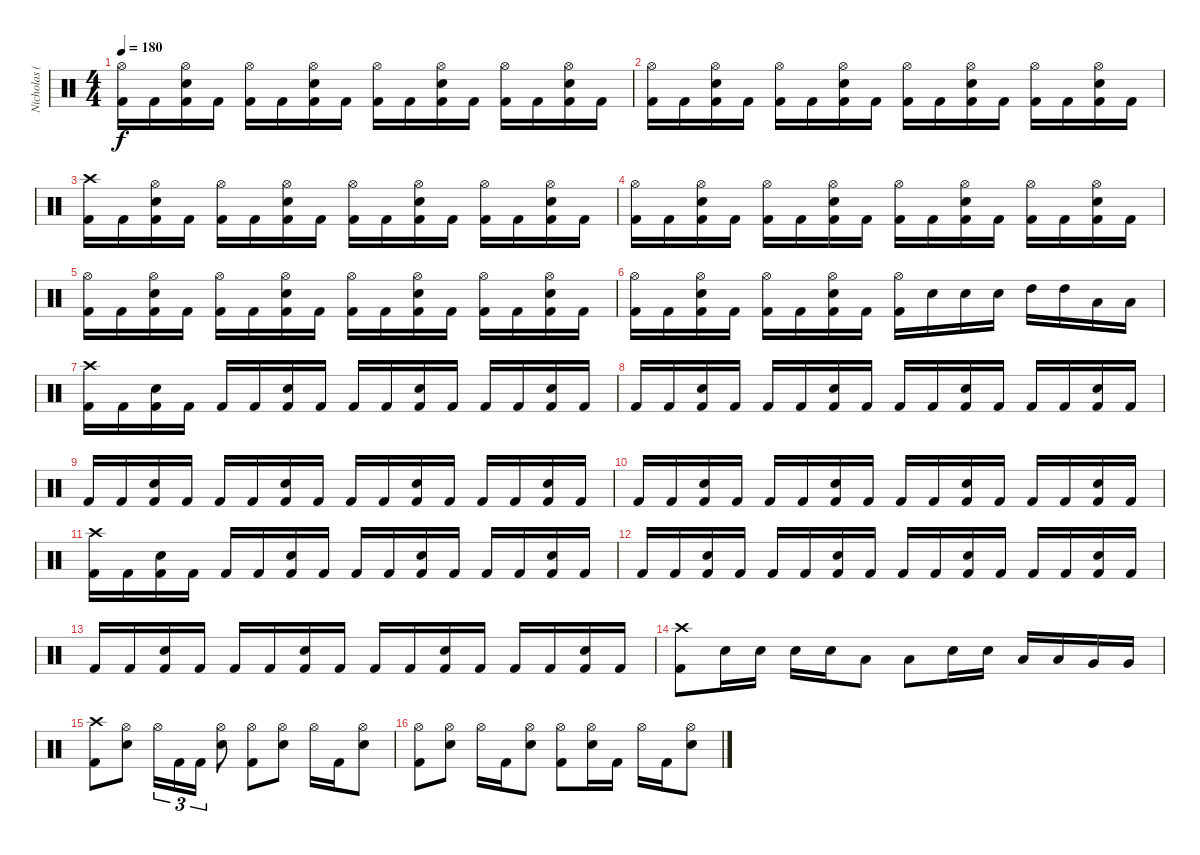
\track ("Nicholas (Drums)" "Nicholas (") {instrument percussion}
\staff {score}
\articulation defaults
\ts (4 4)
\tempo 180
\clef neutral
\ks c
("Hi-Hat (open)" "Kick (hit) 2").16{dy f} "Kick (hit) 2".16 ("Hi-Hat (open)" "Electric Snare (hit)" "Kick (hit) 2").16 "Kick (hit) 2".16 ("Hi-Hat (open)" "Kick (hit) 2").16 "Kick (hit) 2".16 ("Hi-Hat (open)" "Electric Snare (hit)" "Kick (hit) 2").16 "Kick (hit) 2".16 ("Hi-Hat (open)" "Kick (hit) 2").16 "Kick (hit) 2".16 ("Hi-Hat (open)" "Electric Snare (hit)" "Kick (hit) 2").16 "Kick (hit) 2".16 ("Hi-Hat (open)" "Kick (hit) 2").16 "Kick (hit) 2".16 ("Hi-Hat (open)" "Electric Snare (hit)" "Kick (hit) 2").16 "Kick (hit) 2".16 |
("Hi-Hat (open)" "Kick (hit) 2").16 "Kick (hit) 2".16 ("Hi-Hat (open)" "Electric Snare (hit)" "Kick (hit) 2").16 "Kick (hit) 2".16 ("Hi-Hat (open)" "Kick (hit) 2").16 "Kick (hit) 2".16 ("Hi-Hat (open)" "Electric Snare (hit)" "Kick (hit) 2").16 "Kick (hit) 2".16 ("Hi-Hat (open)" "Kick (hit) 2").16 "Kick (hit) 2".16 ("Hi-Hat (open)" "Electric Snare (hit)" "Kick (hit) 2").16 "Kick (hit) 2".16 ("Hi-Hat (open)" "Kick (hit) 2").16 "Kick (hit) 2".16 ("Hi-Hat (open)" "Electric Snare (hit)" "Kick (hit) 2").16 "Kick (hit) 2".16 |
("Crash high (hit)" "Kick (hit) 2").16 "Kick (hit) 2".16 ("Hi-Hat (open)" "Electric Snare (hit)" "Kick (hit) 2").16 "Kick (hit) 2".16 ("Hi-Hat (open)" "Kick (hit) 2").16 "Kick (hit) 2".16 ("Hi-Hat (open)" "Electric Snare (hit)" "Kick (hit) 2").16 "Kick (hit) 2".16 ("Hi-Hat (open)" "Kick (hit) 2").16 "Kick (hit) 2".16 ("Hi-Hat (open)" "Electric Snare (hit)" "Kick (hit) 2").16 "Kick (hit) 2".16 ("Hi-Hat (open)" "Kick (hit) 2").16 "Kick (hit) 2".16 ("Hi-Hat (open)" "Electric Snare (hit)" "Kick (hit) 2").16 "Kick (hit) 2".16 |
("Hi-Hat (open)" "Kick (hit) 2").16 "Kick (hit) 2".16 ("Hi-Hat (open)" "Electric Snare (hit)" "Kick (hit) 2").16 "Kick (hit) 2".16 ("Hi-Hat (open)" "Kick (hit) 2").16 "Kick (hit) 2".16 ("Hi-Hat (open)" "Electric Snare (hit)" "Kick (hit) 2").16 "Kick (hit) 2".16 ("Hi-Hat (open)" "Kick (hit) 2").16 "Kick (hit) 2".16 ("Hi-Hat (open)" "Electric Snare (hit)" "Kick (hit) 2").16 "Kick (hit) 2".16 ("Hi-Hat (open)" "Kick (hit) 2").16 "Kick (hit) 2".16 ("Hi-Hat (open)" "Electric Snare (hit)" "Kick (hit) 2").16 "Kick (hit) 2".16 |
("Hi-Hat (open)" "Kick (hit) 2").16 "Kick (hit) 2".16 ("Hi-Hat (open)" "Electric Snare (hit)" "Kick (hit) 2").16 "Kick (hit) 2".16 ("Hi-Hat (open)" "Kick (hit) 2").16 "Kick (hit) 2".16 ("Hi-Hat (open)" "Electric Snare (hit)" "Kick (hit) 2").16 "Kick (hit) 2".16 ("Hi-Hat (open)" "Kick (hit) 2").16 "Kick (hit) 2".16 ("Hi-Hat (open)" "Electric Snare (hit)" "Kick (hit) 2").16 "Kick (hit) 2".16 ("Hi-Hat (open)" "Kick (hit) 2").16 "Kick (hit) 2".16 ("Hi-Hat (open)" "Electric Snare (hit)" "Kick (hit) 2").16 "Kick (hit) 2".16 |
("Hi-Hat (open)" "Kick (hit) 2").16 "Kick (hit) 2".16 ("Hi-Hat (open)" "Electric Snare (hit)" "Kick (hit) 2").16 "Kick (hit) 2".16 ("Hi-Hat (open)" "Kick (hit) 2").16 "Kick (hit) 2".16 ("Hi-Hat (open)" "Electric Snare (hit)" "Kick (hit) 2").16 "Kick (hit) 2".16 ("Hi-Hat (open)" "Kick (hit) 2").16 "Electric Snare (hit)".16 "Electric Snare (hit)".16 "Electric Snare (hit)".16 "High Tom (hit)".16 "High Tom (hit)".16 "Low Tom (hit)".16 "Low Tom (hit)".16 |
("Crash high (hit)" "Kick (hit) 2").16 "Kick (hit) 2".16 ("Electric Snare (hit)" "Kick (hit) 2").16 "Kick (hit) 2".16 "Kick (hit) 2".16 "Kick (hit) 2".16 ("Electric Snare (hit)" "Kick (hit) 2").16 "Kick (hit) 2".16 "Kick (hit) 2".16 "Kick (hit) 2".16 ("Electric Snare (hit)" "Kick (hit) 2").16 "Kick (hit) 2".16 "Kick (hit) 2".16 "Kick (hit) 2".16 ("Electric Snare (hit)" "Kick (hit) 2").16 "Kick (hit) 2".16 |
"Kick (hit) 2".16 "Kick (hit) 2".16 ("Electric Snare (hit)" "Kick (hit) 2").16 "Kick (hit) 2".16 "Kick (hit) 2".16 "Kick (hit) 2".16 ("Electric Snare (hit)" "Kick (hit) 2").16 "Kick (hit) 2".16 "Kick (hit) 2".16 "Kick (hit) 2".16 ("Electric Snare (hit)" "Kick (hit) 2").16 "Kick (hit) 2".16 "Kick (hit) 2".16 "Kick (hit) 2".16 ("Electric Snare (hit)" "Kick (hit) 2").16 "Kick (hit) 2".16 |
"Kick (hit) 2".16 "Kick (hit) 2".16 ("Electric Snare (hit)" "Kick (hit) 2").16 "Kick (hit) 2".16 "Kick (hit) 2".16 "Kick (hit) 2".16 ("Electric Snare (hit)" "Kick (hit) 2").16 "Kick (hit) 2".16 "Kick (hit) 2".16 "Kick (hit) 2".16 ("Electric Snare (hit)" "Kick (hit) 2").16 "Kick (hit) 2".16 "Kick (hit) 2".16 "Kick (hit) 2".16 ("Electric Snare (hit)" "Kick (hit) 2").16 "Kick (hit) 2".16 |
"Kick (hit) 2".16 "Kick (hit) 2".16 ("Electric Snare (hit)" "Kick (hit) 2").16 "Kick (hit) 2".16 "Kick (hit) 2".16 "Kick (hit) 2".16 ("Electric Snare (hit)" "Kick (hit) 2").16 "Kick (hit) 2".16 "Kick (hit) 2".16 "Kick (hit) 2".16 ("Electric Snare (hit)" "Kick (hit) 2").16 "Kick (hit) 2".16 "Kick (hit) 2".16 "Kick (hit) 2".16 ("Electric Snare (hit)" "Kick (hit) 2").16 "Kick (hit) 2".16 |
("Crash high (hit)" "Kick (hit) 2").16 "Kick (hit) 2".16 ("Electric Snare (hit)" "Kick (hit) 2").16 "Kick (hit) 2".16 "Kick (hit) 2".16 "Kick (hit) 2".16 ("Electric Snare (hit)" "Kick (hit) 2").16 "Kick (hit) 2".16 "Kick (hit) 2".16 "Kick (hit) 2".16 ("Electric Snare (hit)" "Kick (hit) 2").16 "Kick (hit) 2".16 "Kick (hit) 2".16 "Kick (hit) 2".16 ("Electric Snare (hit)" "Kick (hit) 2").16 "Kick (hit) 2".16 |
"Kick (hit) 2".16 "Kick (hit) 2".16 ("Electric Snare (hit)" "Kick (hit) 2").16 "Kick (hit) 2".16 "Kick (hit) 2".16 "Kick (hit) 2".16 ("Electric Snare (hit)" "Kick (hit) 2").16 "Kick (hit) 2".16 "Kick (hit) 2".16 "Kick (hit) 2".16 ("Electric Snare (hit)" "Kick (hit) 2").16 "Kick (hit) 2".16 "Kick (hit) 2".16 "Kick (hit) 2".16 ("Electric Snare (hit)" "Kick (hit) 2").16 "Kick (hit) 2".16 |
"Kick (hit) 2".16 "Kick (hit) 2".16 ("Electric Snare (hit)" "Kick (hit) 2").16 "Kick (hit) 2".16 "Kick (hit) 2".16 "Kick (hit) 2".16 ("Electric Snare (hit)" "Kick (hit) 2").16 "Kick (hit) 2".16 "Kick (hit) 2".16 "Kick (hit) 2".16 ("Electric Snare (hit)" "Kick (hit) 2").16 "Kick (hit) 2".16 "Kick (hit) 2".16 "Kick (hit) 2".16 ("Electric Snare (hit)" "Kick (hit) 2").16 "Kick (hit) 2".16 |
("Crash high (hit)" "Kick (hit) 2").8 "Electric Snare (hit)".16 "Electric Snare (hit)".16 "Electric Snare (hit)".16 "Electric Snare (hit)".16 "Low Tom (hit)".8 "Low Tom (hit)".8 "Electric Snare (hit)".16 "Electric Snare (hit)".16 "Low Tom (hit)".16 "Low Tom (hit)".16 "Very Low Tom (hit)".16 "Very Low Tom (hit)".16 |
("Crash high (hit)" "Kick (hit) 2").8 ("Hi-Hat (open)" "Electric Snare (hit)").8 "Hi-Hat (open)".16{tu (3 2)} "Kick (hit) 2".16{tu (3 2)} "Kick (hit) 2".16{tu (3 2)} ("Hi-Hat (open)" "Electric Snare (hit)").8 ("Hi-Hat (open)" "Kick (hit) 2").8 ("Hi-Hat (open)" "Electric Snare (hit)").8 "Hi-Hat (open)".16 "Kick (hit) 2".16 ("Hi-Hat (open)" "Electric Snare (hit)").8 |
("Hi-Hat (open)" "Kick (hit) 2").8 ("Hi-Hat (open)" "Electric Snare (hit)").8 "Hi-Hat (open)".16 "Kick (hit) 2".16 ("Hi-Hat (open)" "Electric Snare (hit)").8 ("Hi-Hat (open)" "Kick (hit) 2").8 ("Hi-Hat (open)" "Electric Snare (hit)").16 "Kick (hit) 2".16 "Hi-Hat (open)".16 "Kick (hit) 2".16 ("Hi-Hat (open)" "Electric Snare (hit)").8
